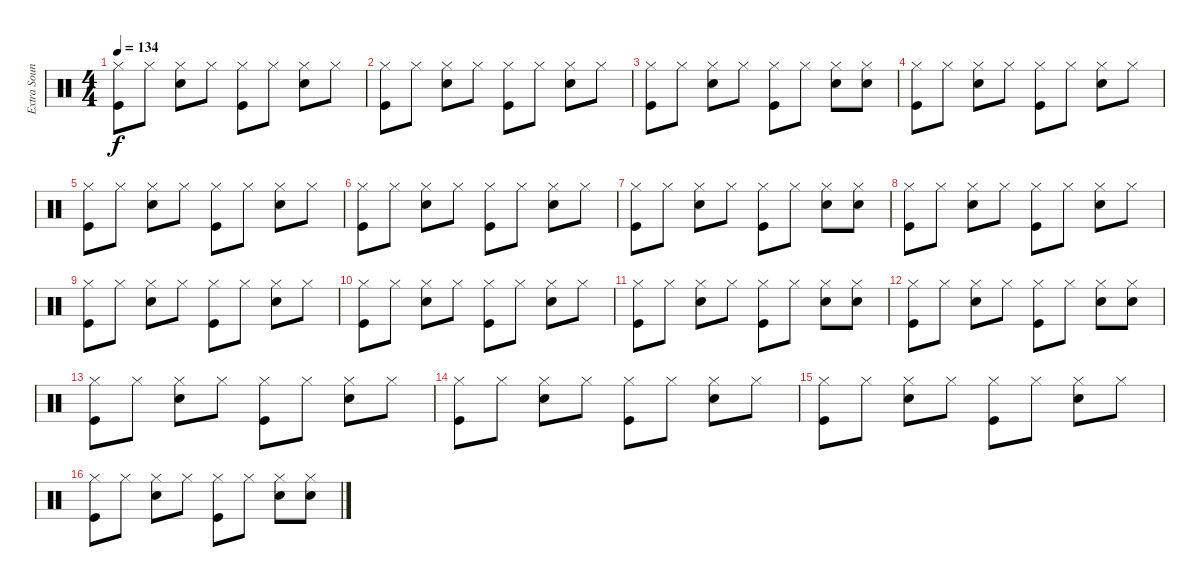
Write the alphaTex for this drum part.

\track ("Extra Sounds" "Extra Soun") {instrument percussion}
\staff {score}
\articulation defaults
\ts (4 4)
\tempo 134
\clef neutral
\ks c
("Hi-Hat (closed)" "Kick (hit)").8{dy f} "Hi-Hat (closed)".8 ("Hi-Hat (closed)" "Snare (hit) 2").8 "Hi-Hat (closed)".8 ("Hi-Hat (closed)" "Kick (hit)").8 "Hi-Hat (closed)".8 ("Hi-Hat (closed)" "Snare (hit) 2").8 "Hi-Hat (closed)".8 |
("Hi-Hat (closed)" "Kick (hit)").8 "Hi-Hat (closed)".8 ("Hi-Hat (closed)" "Snare (hit) 2").8 "Hi-Hat (closed)".8 ("Hi-Hat (closed)" "Kick (hit)").8 "Hi-Hat (closed)".8 ("Hi-Hat (closed)" "Snare (hit) 2").8 "Hi-Hat (closed)".8 |
("Hi-Hat (closed)" "Kick (hit)").8 "Hi-Hat (closed)".8 ("Hi-Hat (closed)" "Snare (hit) 2").8 "Hi-Hat (closed)".8 ("Hi-Hat (closed)" "Kick (hit)").8 "Hi-Hat (closed)".8 ("Hi-Hat (closed)" "Snare (hit) 2").8 ("Hi-Hat (closed)" "Snare (hit) 2").8 |
("Hi-Hat (closed)" "Kick (hit)").8 "Hi-Hat (closed)".8 ("Hi-Hat (closed)" "Snare (hit) 2").8 "Hi-Hat (closed)".8 ("Hi-Hat (closed)" "Kick (hit)").8 "Hi-Hat (closed)".8 ("Hi-Hat (closed)" "Snare (hit) 2").8 "Hi-Hat (closed)".8 |
("Hi-Hat (closed)" "Kick (hit)").8 "Hi-Hat (closed)".8 ("Hi-Hat (closed)" "Snare (hit) 2").8 "Hi-Hat (closed)".8 ("Hi-Hat (closed)" "Kick (hit)").8 "Hi-Hat (closed)".8 ("Hi-Hat (closed)" "Snare (hit) 2").8 "Hi-Hat (closed)".8 |
("Hi-Hat (closed)" "Kick (hit)").8 "Hi-Hat (closed)".8 ("Hi-Hat (closed)" "Snare (hit) 2").8 "Hi-Hat (closed)".8 ("Hi-Hat (closed)" "Kick (hit)").8 "Hi-Hat (closed)".8 ("Hi-Hat (closed)" "Snare (hit) 2").8 "Hi-Hat (closed)".8 |
("Hi-Hat (closed)" "Kick (hit)").8 "Hi-Hat (closed)".8 ("Hi-Hat (closed)" "Snare (hit) 2").8 "Hi-Hat (closed)".8 ("Hi-Hat (closed)" "Kick (hit)").8 "Hi-Hat (closed)".8 ("Hi-Hat (closed)" "Snare (hit) 2").8 ("Hi-Hat (closed)" "Snare (hit) 2").8 |
("Hi-Hat (closed)" "Kick (hit)").8 "Hi-Hat (closed)".8 ("Hi-Hat (closed)" "Snare (hit) 2").8 "Hi-Hat (closed)".8 ("Hi-Hat (closed)" "Kick (hit)").8 "Hi-Hat (closed)".8 ("Hi-Hat (closed)" "Snare (hit) 2").8 "Hi-Hat (closed)".8 |
("Hi-Hat (closed)" "Kick (hit)").8 "Hi-Hat (closed)".8 ("Hi-Hat (closed)" "Snare (hit) 2").8 "Hi-Hat (closed)".8 ("Hi-Hat (closed)" "Kick (hit)").8 "Hi-Hat (closed)".8 ("Hi-Hat (closed)" "Snare (hit) 2").8 "Hi-Hat (closed)".8 |
("Hi-Hat (closed)" "Kick (hit)").8 "Hi-Hat (closed)".8 ("Hi-Hat (closed)" "Snare (hit) 2").8 "Hi-Hat (closed)".8 ("Hi-Hat (closed)" "Kick (hit)").8 "Hi-Hat (closed)".8 ("Hi-Hat (closed)" "Snare (hit) 2").8 "Hi-Hat (closed)".8 |
("Hi-Hat (closed)" "Kick (hit)").8 "Hi-Hat (closed)".8 ("Hi-Hat (closed)" "Snare (hit) 2").8 "Hi-Hat (closed)".8 ("Hi-Hat (closed)" "Kick (hit)").8 "Hi-Hat (closed)".8 ("Hi-Hat (closed)" "Snare (hit) 2").8 ("Hi-Hat (closed)" "Snare (hit) 2").8 |
("Hi-Hat (closed)" "Kick (hit)").8 "Hi-Hat (closed)".8 ("Hi-Hat (closed)" "Snare (hit) 2").8 "Hi-Hat (closed)".8 ("Hi-Hat (closed)" "Kick (hit)").8 "Hi-Hat (closed)".8 ("Hi-Hat (closed)" "Snare (hit) 2").8 ("Hi-Hat (closed)" "Snare (hit) 2").8 |
("Hi-Hat (closed)" "Kick (hit)").8 "Hi-Hat (closed)".8 ("Hi-Hat (closed)" "Snare (hit) 2").8 "Hi-Hat (closed)".8 ("Hi-Hat (closed)" "Kick (hit)").8 "Hi-Hat (closed)".8 ("Hi-Hat (closed)" "Snare (hit) 2").8 "Hi-Hat (closed)".8 |
("Hi-Hat (closed)" "Kick (hit)").8 "Hi-Hat (closed)".8 ("Hi-Hat (closed)" "Snare (hit) 2").8 "Hi-Hat (closed)".8 ("Hi-Hat (closed)" "Kick (hit)").8 "Hi-Hat (closed)".8 ("Hi-Hat (closed)" "Snare (hit) 2").8 "Hi-Hat (closed)".8 |
("Hi-Hat (closed)" "Kick (hit)").8 "Hi-Hat (closed)".8 ("Hi-Hat (closed)" "Snare (hit) 2").8 "Hi-Hat (closed)".8 ("Hi-Hat (closed)" "Kick (hit)").8 "Hi-Hat (closed)".8 ("Hi-Hat (closed)" "Snare (hit) 2").8 "Hi-Hat (closed)".8 |
("Hi-Hat (closed)" "Kick (hit)").8 "Hi-Hat (closed)".8 ("Hi-Hat (closed)" "Snare (hit) 2").8 "Hi-Hat (closed)".8 ("Hi-Hat (closed)" "Kick (hit)").8 "Hi-Hat (closed)".8 ("Hi-Hat (closed)" "Snare (hit) 2").8 ("Hi-Hat (closed)" "Snare (hit) 2").8
